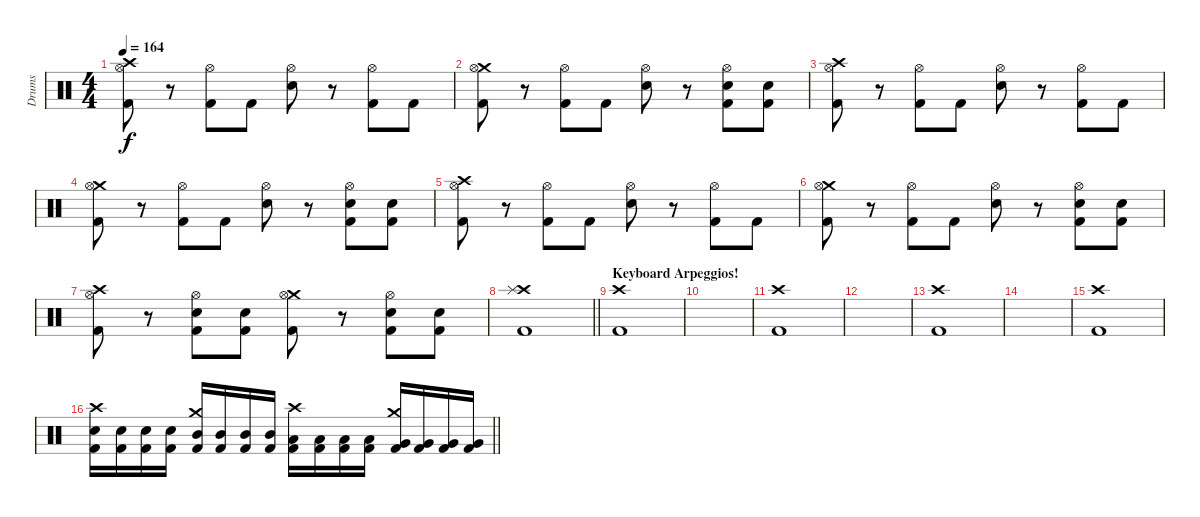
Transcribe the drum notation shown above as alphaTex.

\track ("Drums" "Drums") {instrument percussion}
\staff {score}
\articulation defaults
\ts (4 4)
\tempo 164
\clef neutral
\ks c
("Crash high (hit)" "Hi-Hat (open)" "Kick (hit) 2").8{dy f} r.8 ("Hi-Hat (open)" "Kick (hit) 2").8 "Kick (hit) 2".8 ("Hi-Hat (open)" "Snare (hit) 2").8 r.8 ("Hi-Hat (open)" "Kick (hit) 2").8 "Kick (hit) 2".8 |
("Crash medium (hit)" "Hi-Hat (open)" "Kick (hit) 2").8 r.8 ("Hi-Hat (open)" "Kick (hit) 2").8 "Kick (hit) 2".8 ("Hi-Hat (open)" "Snare (hit) 2").8 r.8 ("Hi-Hat (open)" "Snare (hit) 2" "Kick (hit) 2").8 ("Snare (hit) 2" "Kick (hit) 2").8 |
("Crash high (hit)" "Hi-Hat (open)" "Kick (hit) 2").8 r.8 ("Hi-Hat (open)" "Kick (hit) 2").8 "Kick (hit) 2".8 ("Hi-Hat (open)" "Snare (hit) 2").8 r.8 ("Hi-Hat (open)" "Kick (hit) 2").8 "Kick (hit) 2".8 |
("Crash medium (hit)" "Hi-Hat (open)" "Kick (hit) 2").8 r.8 ("Hi-Hat (open)" "Kick (hit) 2").8 "Kick (hit) 2".8 ("Hi-Hat (open)" "Snare (hit) 2").8 r.8 ("Hi-Hat (open)" "Snare (hit) 2" "Kick (hit) 2").8 ("Snare (hit) 2" "Kick (hit) 2").8 |
("Crash high (hit)" "Hi-Hat (open)" "Kick (hit) 2").8 r.8 ("Hi-Hat (open)" "Kick (hit) 2").8 "Kick (hit) 2".8 ("Hi-Hat (open)" "Snare (hit) 2").8 r.8 ("Hi-Hat (open)" "Kick (hit) 2").8 "Kick (hit) 2".8 |
("Crash medium (hit)" "Hi-Hat (open)" "Kick (hit) 2").8 r.8 ("Hi-Hat (open)" "Kick (hit) 2").8 "Kick (hit) 2".8 ("Hi-Hat (open)" "Snare (hit) 2").8 r.8 ("Hi-Hat (open)" "Snare (hit) 2" "Kick (hit) 2").8 ("Snare (hit) 2" "Kick (hit) 2").8 |
("Crash high (hit)" "Hi-Hat (open)" "Kick (hit) 2").8 r.8 ("Hi-Hat (open)" "Snare (hit) 2" "Kick (hit) 2").8 ("Snare (hit) 2" "Kick (hit) 2").8 ("Crash medium (hit)" "Hi-Hat (open)" "Kick (hit) 2").8 r.8 ("Hi-Hat (open)" "Snare (hit) 2" "Kick (hit) 2").8 ("Snare (hit) 2" "Kick (hit) 2").8 |
\barLineRight lightlight
("Crash high (hit)" "Splash (hit)" "Kick (hit) 2").1 |
\section ("" "Keyboard Arpeggios!")
("Crash high (hit)" "Kick (hit) 2").1 |
|
("Crash high (hit)" "Kick (hit) 2").1 |
|
("Crash high (hit)" "Kick (hit) 2").1 |
|
("Crash high (hit)" "Kick (hit) 2").1 |
\barLineRight lightlight
("Crash high (hit)" "Snare (hit) 2" "Kick (hit) 2").16 ("Snare (hit) 2" "Kick (hit) 2").16 ("Snare (hit) 2" "Kick (hit) 2").16 ("Snare (hit) 2" "Kick (hit) 2").16 ("Crash medium (hit)" "Mid Tom (hit)" "Kick (hit) 2").16 ("Mid Tom (hit)" "Kick (hit) 2").16 ("Mid Tom (hit)" "Kick (hit) 2").16 ("Mid Tom (hit)" "Kick (hit) 2").16 ("Crash high (hit)" "Low Tom (hit)" "Kick (hit) 2").16 ("Low Tom (hit)" "Kick (hit) 2").16 ("Low Tom (hit)" "Kick (hit) 2").16 ("Low Tom (hit)" "Kick (hit) 2").16 ("Crash medium (hit)" "Very Low Tom (hit)" "Kick (hit) 2").16 ("Very Low Tom (hit)" "Kick (hit) 2").16 ("Very Low Tom (hit)" "Kick (hit) 2").16 ("Very Low Tom (hit)" "Kick (hit) 2").16
